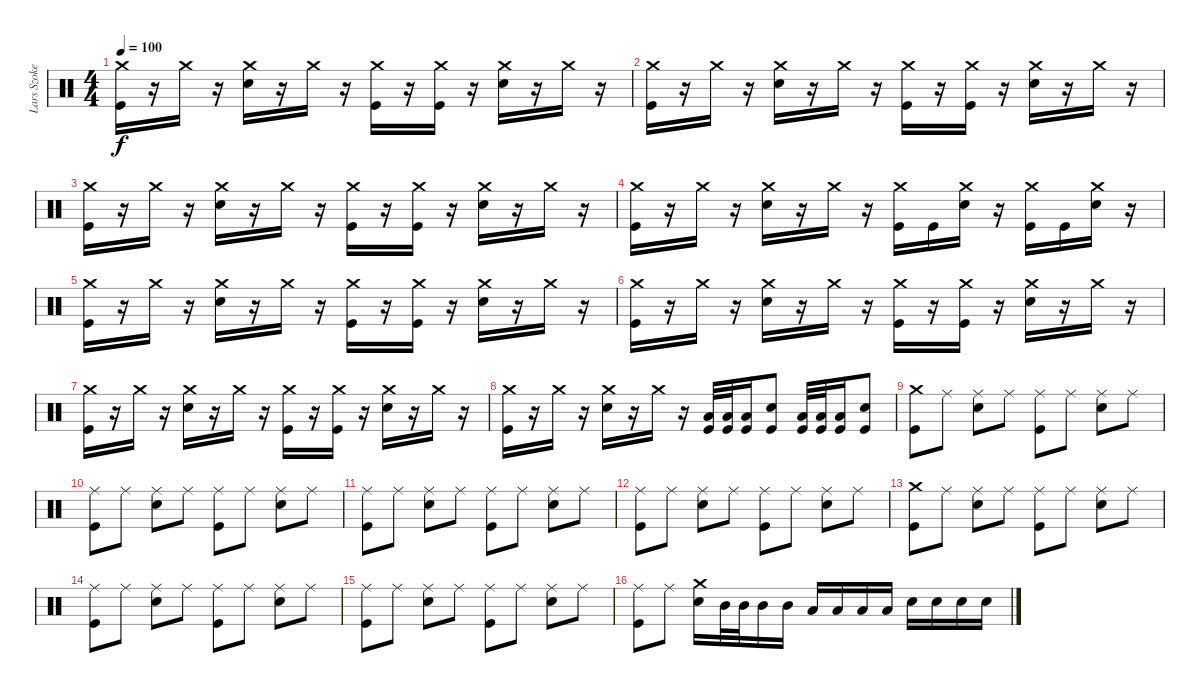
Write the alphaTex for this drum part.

\track ("Lars Szoke" "Lars Szoke") {instrument percussion}
\staff {score}
\articulation defaults
\ts (4 4)
\tempo 100
\clef neutral
\ks c
("Crash medium (hit)" "Kick (hit)").16{dy f} r.16 "Crash medium (hit)".16 r.16 ("Crash medium (hit)" "Electric Snare (hit)").16 r.16 "Crash medium (hit)".16 r.16 ("Crash medium (hit)" "Kick (hit)").16 r.16 ("Crash medium (hit)" "Kick (hit)").16 r.16 ("Crash medium (hit)" "Electric Snare (hit)").16 r.16 "Crash medium (hit)".16 r.16 |
("Crash medium (hit)" "Kick (hit)").16 r.16 "Crash medium (hit)".16 r.16 ("Crash medium (hit)" "Electric Snare (hit)").16 r.16 "Crash medium (hit)".16 r.16 ("Crash medium (hit)" "Kick (hit)").16 r.16 ("Crash medium (hit)" "Kick (hit)").16 r.16 ("Crash medium (hit)" "Electric Snare (hit)").16 r.16 "Crash medium (hit)".16 r.16 |
("Crash medium (hit)" "Kick (hit)").16 r.16 "Crash medium (hit)".16 r.16 ("Crash medium (hit)" "Electric Snare (hit)").16 r.16 "Crash medium (hit)".16 r.16 ("Crash medium (hit)" "Kick (hit)").16 r.16 ("Crash medium (hit)" "Kick (hit)").16 r.16 ("Crash medium (hit)" "Electric Snare (hit)").16 r.16 "Crash medium (hit)".16 r.16 |
("Crash medium (hit)" "Kick (hit)").16 r.16 "Crash medium (hit)".16 r.16 ("Crash medium (hit)" "Electric Snare (hit)").16 r.16 "Crash medium (hit)".16 r.16 ("Crash medium (hit)" "Kick (hit)").16 "Kick (hit)".16 ("Crash medium (hit)" "Electric Snare (hit)").16 r.16 ("Crash medium (hit)" "Kick (hit)").16 "Kick (hit)".16 ("Crash medium (hit)" "Electric Snare (hit)").16 r.16 |
("Crash medium (hit)" "Kick (hit)").16 r.16 "Crash medium (hit)".16 r.16 ("Crash medium (hit)" "Electric Snare (hit)").16 r.16 "Crash medium (hit)".16 r.16 ("Crash medium (hit)" "Kick (hit)").16 r.16 ("Crash medium (hit)" "Kick (hit)").16 r.16 ("Crash medium (hit)" "Electric Snare (hit)").16 r.16 "Crash medium (hit)".16 r.16 |
("Crash medium (hit)" "Kick (hit)").16 r.16 "Crash medium (hit)".16 r.16 ("Crash medium (hit)" "Electric Snare (hit)").16 r.16 "Crash medium (hit)".16 r.16 ("Crash medium (hit)" "Kick (hit)").16 r.16 ("Crash medium (hit)" "Kick (hit)").16 r.16 ("Crash medium (hit)" "Electric Snare (hit)").16 r.16 "Crash medium (hit)".16 r.16 |
("Crash medium (hit)" "Kick (hit)").16 r.16 "Crash medium (hit)".16 r.16 ("Crash medium (hit)" "Electric Snare (hit)").16 r.16 "Crash medium (hit)".16 r.16 ("Crash medium (hit)" "Kick (hit)").16 r.16 ("Crash medium (hit)" "Kick (hit)").16 r.16 ("Crash medium (hit)" "Electric Snare (hit)").16 r.16 "Crash medium (hit)".16 r.16 |
("Crash medium (hit)" "Kick (hit)").16 r.16 "Crash medium (hit)".16 r.16 ("Crash medium (hit)" "Electric Snare (hit)").16 r.16 "Crash medium (hit)".16 r.16 ("Low Tom (hit)" "Kick (hit)").32 ("Low Tom (hit)" "Kick (hit)").32 ("Low Tom (hit)" "Kick (hit)").16 ("Electric Snare (hit)" "Kick (hit)").8 ("Low Tom (hit)" "Kick (hit)").32 ("Low Tom (hit)" "Kick (hit)").32 ("Low Tom (hit)" "Kick (hit)").16 ("Electric Snare (hit)" "Kick (hit)").8 |
("Crash medium (hit)" "Kick (hit)").8 "Ride (middle)".8 ("Ride (middle)" "Electric Snare (hit)").8 "Ride (middle)".8 ("Ride (middle)" "Kick (hit)").8 "Ride (middle)".8 ("Ride (middle)" "Electric Snare (hit)").8 "Ride (middle)".8 |
("Ride (middle)" "Kick (hit)").8 "Ride (middle)".8 ("Ride (middle)" "Electric Snare (hit)").8 "Ride (middle)".8 ("Ride (middle)" "Kick (hit)").8 "Ride (middle)".8 ("Ride (middle)" "Electric Snare (hit)").8 "Ride (middle)".8 |
("Ride (middle)" "Kick (hit)").8 "Ride (middle)".8 ("Ride (middle)" "Electric Snare (hit)").8 "Ride (middle)".8 ("Ride (middle)" "Kick (hit)").8 "Ride (middle)".8 ("Ride (middle)" "Electric Snare (hit)").8 "Ride (middle)".8 |
("Ride (middle)" "Kick (hit)").8 "Ride (middle)".8 ("Ride (middle)" "Electric Snare (hit)").8 "Ride (middle)".8 ("Ride (middle)" "Kick (hit)").8 "Ride (middle)".8 ("Ride (middle)" "Electric Snare (hit)").8 "Ride (middle)".8 |
("Crash medium (hit)" "Kick (hit)").8 "Ride (middle)".8 ("Ride (middle)" "Electric Snare (hit)").8 "Ride (middle)".8 ("Ride (middle)" "Kick (hit)").8 "Ride (middle)".8 ("Ride (middle)" "Electric Snare (hit)").8 "Ride (middle)".8 |
("Ride (middle)" "Kick (hit)").8 "Ride (middle)".8 ("Ride (middle)" "Electric Snare (hit)").8 "Ride (middle)".8 ("Ride (middle)" "Kick (hit)").8 "Ride (middle)".8 ("Ride (middle)" "Electric Snare (hit)").8 "Ride (middle)".8 |
("Ride (middle)" "Kick (hit)").8 "Ride (middle)".8 ("Ride (middle)" "Electric Snare (hit)").8 "Ride (middle)".8 ("Ride (middle)" "Kick (hit)").8 "Ride (middle)".8 ("Ride (middle)" "Electric Snare (hit)").8 "Ride (middle)".8 |
("Ride (middle)" "Kick (hit)").8 "Ride (middle)".8 ("Crash medium (hit)" "Electric Snare (hit)").16 "Mid Tom (hit)".32 "Mid Tom (hit)".32 "Mid Tom (hit)".16 "Mid Tom (hit)".16 "Low Tom (hit)".16 "Low Tom (hit)".16 "Low Tom (hit)".16 "Low Tom (hit)".16 "Electric Snare (hit)".16 "Electric Snare (hit)".16 "Electric Snare (hit)".16 "Electric Snare (hit)".16
